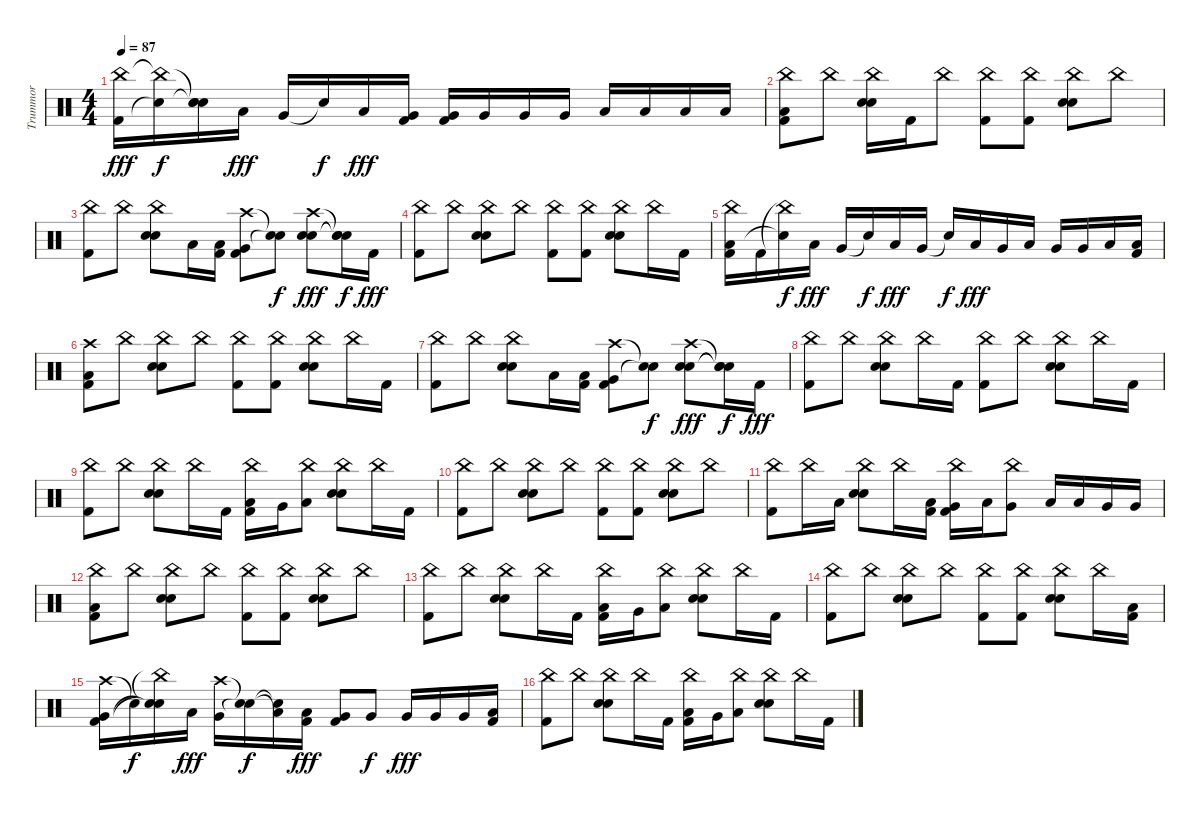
\track ("Trummor" "Trummor") {instrument percussion}
\staff {score}
\articulation defaults
\ts (4 4)
\tempo 87
\clef neutral
\ks c
("China (hit)" "Kick (hit) 2").16{dy fff} ("China (hit)"{t} "Snare (hit)"{t}).16{dy f} ("Snare (hit)"{t} "Snare (hit)"{t} "Snare (hit)"{t}).16 "Low Floor Tom (hit)".16{dy fff} "Very Low Tom (hit)".16 "Snare (hit)"{t}.16{dy f} "Low Floor Tom (hit)".16{dy fff} ("Very Low Tom (hit)" "Kick (hit) 2").16 ("Very Low Tom (hit)" "Kick (hit) 2").16 "Very Low Tom (hit)".16 "Very Low Tom (hit)".16 "Very Low Tom (hit)".16 "Low Tom (hit)".16 "Low Tom (hit)".16 "Low Tom (hit)".16 "Low Tom (hit)".16 |
("China (hit)" "Low Floor Tom (hit)" "Kick (hit) 2").8 "China (hit)".8 ("China (hit)" "Snare (hit) 2" "Electric Snare (hit)").16 "Kick (hit) 2".16 "China (hit)".8 ("China (hit)" "Kick (hit) 2").8 ("China (hit)" "Kick (hit) 2").8 ("China (hit)" "Snare (hit) 2" "Electric Snare (hit)").8 "China (hit)".8 |
("China (hit)" "Kick (hit) 2").8 "China (hit)".8 ("China (hit)" "Snare (hit) 2" "Electric Snare (hit)").8 "Low Floor Tom (hit)".16 ("Low Floor Tom (hit)" "Kick (hit) 2").16 ("Crash high (hit)" "Very Low Tom (hit)" "Kick (hit) 2").8 ("Snare (hit)"{t} "Snare (hit)"{t}).8{dy f} ("Crash high (hit)" "Snare (hit) 2" "Electric Snare (hit)").8{dy fff} ("Snare (hit)"{t} "Snare (hit)"{t} "Snare (hit)"{t}).16{dy f} "Kick (hit) 2".16{dy fff} |
("China (hit)" "Kick (hit) 2").8 "China (hit)".8 ("China (hit)" "Snare (hit) 2" "Electric Snare (hit)").8 "China (hit)".8 ("China (hit)" "Kick (hit) 2").8 ("China (hit)" "Kick (hit) 2").8 ("China (hit)" "Snare (hit) 2" "Electric Snare (hit)").8 "China (hit)".16 "Kick (hit) 2".16 |
("China (hit)" "Low Floor Tom (hit)" "Kick (hit) 2").16 "Kick (hit) 2".16 ("China (hit)"{t} "Snare (hit)"{t}).16{dy f} "Low Floor Tom (hit)".16{dy fff} "Very Low Tom (hit)".16 "Snare (hit)"{t}.16{dy f} "Low Floor Tom (hit)".16{dy fff} "Very Low Tom (hit)".16 "Snare (hit) 2"{t}.16{dy f} "Low Floor Tom (hit)".16{dy fff} "Very Low Tom (hit)".16 "Low Floor Tom (hit)".16 "Very Low Tom (hit)".16 "Very Low Tom (hit)".16 "Low Tom (hit)".16 ("Low Tom (hit)" "Kick (hit) 2").16 |
("Crash high (hit)" "Low Floor Tom (hit)" "Kick (hit) 2").8 "China (hit)".8 ("China (hit)" "Snare (hit) 2" "Electric Snare (hit)").8 "China (hit)".8 ("China (hit)" "Kick (hit) 2").8 ("China (hit)" "Kick (hit) 2").8 ("China (hit)" "Snare (hit) 2" "Electric Snare (hit)").8 "China (hit)".16 "Kick (hit) 2".16 |
("China (hit)" "Kick (hit) 2").8 "China (hit)".8 ("China (hit)" "Snare (hit) 2" "Electric Snare (hit)").8 "Low Floor Tom (hit)".16 ("Low Floor Tom (hit)" "Kick (hit) 2").16 ("Crash high (hit)" "Very Low Tom (hit)" "Kick (hit) 2").8 ("Snare (hit)"{t} "Snare (hit)"{t}).8{dy f} ("Crash high (hit)" "Snare (hit) 2" "Electric Snare (hit)").8{dy fff} ("Snare (hit)"{t} "Snare (hit)"{t} "Snare (hit)"{t}).16{dy f} "Kick (hit) 2".16{dy fff} |
("China (hit)" "Kick (hit) 2").8 "China (hit)".8 ("China (hit)" "Snare (hit) 2" "Electric Snare (hit)").8 "China (hit)".16 "Kick (hit) 2".16 ("China (hit)" "Kick (hit) 2").8 "China (hit)".8 ("China (hit)" "Snare (hit) 2" "Electric Snare (hit)").8 "China (hit)".16 "Kick (hit) 2".16 |
("China (hit)" "Kick (hit) 2").8 "China (hit)".8 ("China (hit)" "Snare (hit) 2" "Electric Snare (hit)").8 "China (hit)".16 "Kick (hit) 2".16 ("China (hit)" "Low Floor Tom (hit)" "Kick (hit) 2").16 "Very Low Tom (hit)".16 ("China (hit)" "Low Tom (hit)").8 ("China (hit)" "Snare (hit) 2" "Electric Snare (hit)").8 "China (hit)".16 "Kick (hit) 2".16 |
("China (hit)" "Kick (hit) 2").8 "China (hit)".8 ("China (hit)" "Snare (hit) 2" "Electric Snare (hit)").8 "China (hit)".8 ("China (hit)" "Kick (hit) 2").8 ("China (hit)" "Kick (hit) 2").8 ("China (hit)" "Snare (hit) 2" "Electric Snare (hit)").8 "China (hit)".8 |
("China (hit)" "Kick (hit) 2").8 "China (hit)".16 "Low Floor Tom (hit)".16 ("China (hit)" "Snare (hit) 2" "Electric Snare (hit)").8 "China (hit)".16 ("Low Floor Tom (hit)" "Kick (hit) 2").16 ("China (hit)" "Very Low Tom (hit)" "Kick (hit) 2").16 "Low Floor Tom (hit)".16 ("China (hit)" "Very Low Tom (hit)").8 "Low Floor Tom (hit)".16 "Low Floor Tom (hit)".16 "Very Low Tom (hit)".16 "Very Low Tom (hit)".16 |
("China (hit)" "Low Tom (hit)" "Kick (hit) 2").8 "China (hit)".8 ("China (hit)" "Snare (hit) 2" "Electric Snare (hit)").8 "China (hit)".8 ("China (hit)" "Kick (hit) 2").8 ("China (hit)" "Kick (hit) 2").8 ("China (hit)" "Snare (hit) 2" "Electric Snare (hit)").8 "China (hit)".8 |
("China (hit)" "Kick (hit) 2").8 "China (hit)".8 ("China (hit)" "Snare (hit) 2" "Electric Snare (hit)").8 "China (hit)".16 "Kick (hit) 2".16 ("China (hit)" "Low Floor Tom (hit)" "Kick (hit) 2").16 "Very Low Tom (hit)".16 ("China (hit)" "Low Tom (hit)").8 ("China (hit)" "Snare (hit) 2" "Electric Snare (hit)").8 "China (hit)".16 "Kick (hit) 2".16 |
("China (hit)" "Kick (hit) 2").8 "China (hit)".8 ("China (hit)" "Snare (hit) 2" "Electric Snare (hit)").8 "China (hit)".8 ("China (hit)" "Kick (hit) 2").8 ("China (hit)" "Kick (hit) 2").8 ("China (hit)" "Snare (hit) 2" "Electric Snare (hit)").8 "China (hit)".16 ("Low Floor Tom (hit)" "Kick (hit) 2").16 |
("Crash high (hit)" "Very Low Tom (hit)" "Kick (hit) 2").16 "Snare (hit)"{t}.16{dy f} ("China (hit)"{t} "Snare (hit)"{t} "Snare (hit)"{t}).16 "Low Floor Tom (hit)".16{dy fff} ("Crash high (hit)" "Very Low Tom (hit)").16 ("Snare (hit)"{t} "Snare (hit)"{t}).16{dy f} ("Snare (hit)"{t} "Low Floor Tom (hit)"{t}).16 ("Low Floor Tom (hit)" "Kick (hit) 2").16{dy fff} ("Very Low Tom (hit)" "Kick (hit) 2").8 "Very Low Tom (hit)".8{dy f} "Very Low Tom (hit)".16{dy fff} "Very Low Tom (hit)".16 "Very Low Tom (hit)".16 ("Low Tom (hit)" "Kick (hit) 2").16 |
("China (hit)" "Kick (hit) 2").8 "China (hit)".8 ("China (hit)" "Snare (hit) 2" "Electric Snare (hit)").8 "China (hit)".16 "Kick (hit) 2".16 ("China (hit)" "Low Floor Tom (hit)" "Kick (hit) 2").16 "Very Low Tom (hit)".16 ("China (hit)" "Low Tom (hit)").8 ("China (hit)" "Snare (hit) 2" "Electric Snare (hit)").8 "China (hit)".16 "Kick (hit) 2".16
